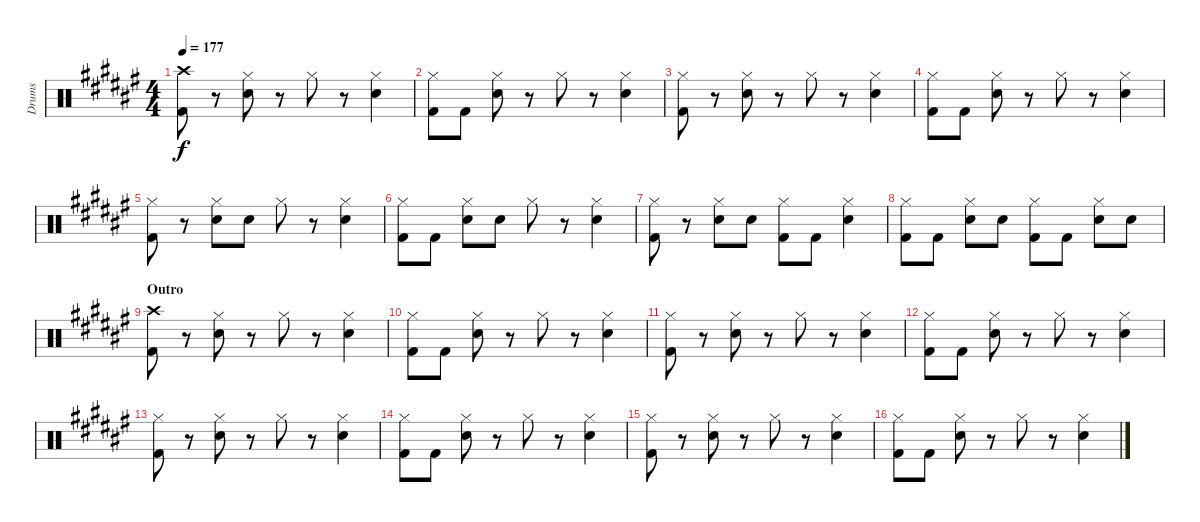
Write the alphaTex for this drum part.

\track ("Drums" "Drums") {instrument percussion}
\staff {score}
\articulation defaults
\ts (4 4)
\tempo 177
\clef neutral
\ks d#minor
("Crash high (hit)" "Kick (hit) 2").8{dy f} r.8 ("Hi-Hat (closed)" "Snare (hit) 2").8 r.8 "Hi-Hat (closed)".8 r.8 ("Hi-Hat (closed)" "Snare (hit) 2").4 |
("Hi-Hat (closed)" "Kick (hit) 2").8 "Kick (hit) 2".8 ("Hi-Hat (closed)" "Snare (hit) 2").8 r.8 "Hi-Hat (closed)".8 r.8 ("Hi-Hat (closed)" "Snare (hit) 2").4 |
("Hi-Hat (closed)" "Kick (hit) 2").8 r.8 ("Hi-Hat (closed)" "Snare (hit) 2").8 r.8 "Hi-Hat (closed)".8 r.8 ("Hi-Hat (closed)" "Snare (hit) 2").4 |
("Hi-Hat (closed)" "Kick (hit) 2").8 "Kick (hit) 2".8 ("Hi-Hat (closed)" "Snare (hit) 2").8 r.8 "Hi-Hat (closed)".8 r.8 ("Hi-Hat (closed)" "Snare (hit) 2").4 |
("Hi-Hat (closed)" "Kick (hit) 2").8 r.8 ("Hi-Hat (closed)" "Snare (hit) 2").8 "Snare (hit) 2".8 "Hi-Hat (closed)".8 r.8 ("Hi-Hat (closed)" "Snare (hit) 2").4 |
("Hi-Hat (closed)" "Kick (hit) 2").8 "Kick (hit) 2".8 ("Hi-Hat (closed)" "Snare (hit) 2").8 "Snare (hit) 2".8 "Hi-Hat (closed)".8 r.8 ("Hi-Hat (closed)" "Snare (hit) 2").4 |
("Hi-Hat (closed)" "Kick (hit) 2").8 r.8 ("Hi-Hat (closed)" "Snare (hit) 2").8 "Snare (hit) 2".8 ("Hi-Hat (closed)" "Kick (hit) 2").8 "Kick (hit) 2".8 ("Hi-Hat (closed)" "Snare (hit) 2").4 |
("Hi-Hat (closed)" "Kick (hit) 2").8 "Kick (hit) 2".8 ("Hi-Hat (closed)" "Snare (hit) 2").8 "Snare (hit) 2".8 ("Hi-Hat (closed)" "Kick (hit) 2").8 "Kick (hit) 2".8 ("Hi-Hat (closed)" "Snare (hit) 2").8 "Snare (hit) 2".8 |
\section ("" "Outro")
("Crash high (hit)" "Kick (hit) 2").8 r.8 ("Hi-Hat (closed)" "Snare (hit) 2").8 r.8 "Hi-Hat (closed)".8 r.8 ("Hi-Hat (closed)" "Snare (hit) 2").4 |
("Hi-Hat (closed)" "Kick (hit) 2").8 "Kick (hit) 2".8 ("Hi-Hat (closed)" "Snare (hit) 2").8 r.8 "Hi-Hat (closed)".8 r.8 ("Hi-Hat (closed)" "Snare (hit) 2").4 |
("Hi-Hat (closed)" "Kick (hit) 2").8 r.8 ("Hi-Hat (closed)" "Snare (hit) 2").8 r.8 "Hi-Hat (closed)".8 r.8 ("Hi-Hat (closed)" "Snare (hit) 2").4 |
("Hi-Hat (closed)" "Kick (hit) 2").8 "Kick (hit) 2".8 ("Hi-Hat (closed)" "Snare (hit) 2").8 r.8 "Hi-Hat (closed)".8 r.8 ("Hi-Hat (closed)" "Snare (hit) 2").4 |
("Hi-Hat (closed)" "Kick (hit) 2").8 r.8 ("Hi-Hat (closed)" "Snare (hit) 2").8 r.8 "Hi-Hat (closed)".8 r.8 ("Hi-Hat (closed)" "Snare (hit) 2").4 |
("Hi-Hat (closed)" "Kick (hit) 2").8 "Kick (hit) 2".8 ("Hi-Hat (closed)" "Snare (hit) 2").8 r.8 "Hi-Hat (closed)".8 r.8 ("Hi-Hat (closed)" "Snare (hit) 2").4 |
("Hi-Hat (closed)" "Kick (hit) 2").8 r.8 ("Hi-Hat (closed)" "Snare (hit) 2").8 r.8 "Hi-Hat (closed)".8 r.8 ("Hi-Hat (closed)" "Snare (hit) 2").4 |
("Hi-Hat (closed)" "Kick (hit) 2").8 "Kick (hit) 2".8 ("Hi-Hat (closed)" "Snare (hit) 2").8 r.8 "Hi-Hat (closed)".8 r.8 ("Hi-Hat (closed)" "Snare (hit) 2").4
